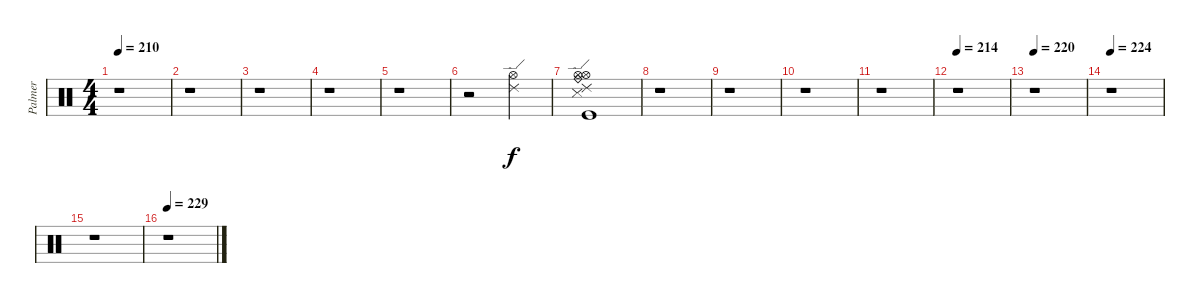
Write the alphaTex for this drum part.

\track ("Palmer" "Palmer") {instrument percussion}
\staff {score}
\articulation defaults
\ts (4 4)
\tempo 210
\clef neutral
\ks c
r.1{dy f} |
r.1 |
r.1 |
r.1 |
r.1 |
r.2 ("Hi-Hat (open)" "Ride (edge) 2").4 |
("Ride (bell)" "Hi-Hat (open)" "Kick (hit)" "Snare (side stick) 3" "Hi-Hat (open)" "Ride (edge) 2").1{balance 8} |
r.1 |
r.1 |
r.1 |
r.1 |
\tempo 214
r.1 |
\tempo 220
r.1 |
\tempo 224
r.1 |
r.1 |
\tempo 229
r.1
